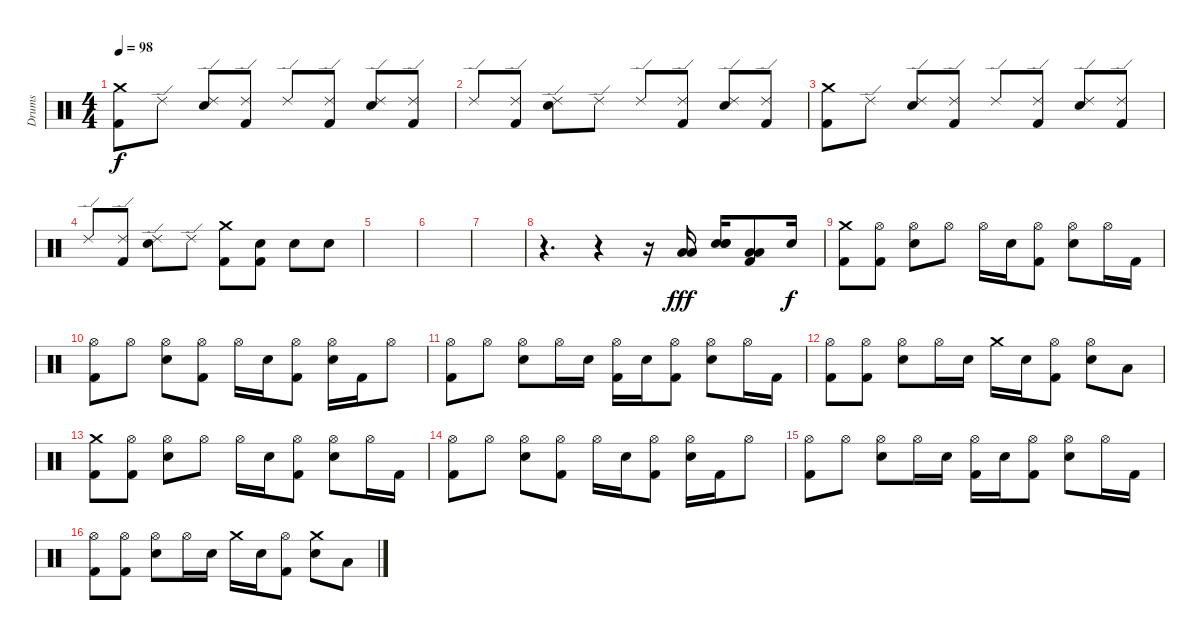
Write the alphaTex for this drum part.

\track ("Drums" "Drums") {instrument percussion}
\staff {score}
\articulation defaults
\ts (4 4)
\tempo 98
\clef neutral
\ks c
("Crash medium (hit)" "Kick (hit) 2").8{dy f} "Ride (edge) 2".8 ("Ride (edge) 2" "Electric Snare (hit)").8 ("Ride (edge) 2" "Kick (hit) 2").8 "Ride (edge) 2".8 ("Ride (edge) 2" "Kick (hit) 2").8 ("Ride (edge) 2" "Electric Snare (hit)").8 ("Ride (edge) 2" "Kick (hit) 2").8 |
"Ride (edge) 2".8 ("Ride (edge) 2" "Kick (hit) 2").8 ("Ride (edge) 2" "Electric Snare (hit)").8 "Ride (edge) 2".8 "Ride (edge) 2".8 ("Ride (edge) 2" "Kick (hit) 2").8 ("Ride (edge) 2" "Electric Snare (hit)").8 ("Ride (edge) 2" "Kick (hit) 2").8 |
("Crash medium (hit)" "Kick (hit) 2").8 "Ride (edge) 2".8 ("Ride (edge) 2" "Electric Snare (hit)").8 ("Ride (edge) 2" "Kick (hit) 2").8 "Ride (edge) 2".8 ("Ride (edge) 2" "Kick (hit) 2").8 ("Ride (edge) 2" "Electric Snare (hit)").8 ("Ride (edge) 2" "Kick (hit) 2").8 |
"Ride (edge) 2".8 ("Ride (edge) 2" "Kick (hit) 2").8 ("Ride (edge) 2" "Electric Snare (hit)").8 "Ride (edge) 2".8 ("Crash medium (hit)" "Kick (hit) 2").8 ("Electric Snare (hit)" "Kick (hit) 2").8 "Electric Snare (hit)".8 "Electric Snare (hit)".8 |
|
|
|
r.4{d} r.4 r.16 ("Low Tom (hit)" "Low Tom (hit)").16{dy fff} ("Electric Snare (hit)" "Electric Snare (hit)" "Electric Snare (hit)").16 ("Low Tom (hit)" "Low Tom (hit)" "Kick (hit) 2").8 "Electric Snare (hit)".16{dy f} |
("Crash medium (hit)" "Kick (hit) 2").8 ("Hi-Hat (open)" "Kick (hit) 2").8 ("Hi-Hat (open)" "Electric Snare (hit)").8 "Hi-Hat (open)".8 "Hi-Hat (open)".16 "Electric Snare (hit)".16 ("Hi-Hat (open)" "Kick (hit) 2").8 ("Hi-Hat (open)" "Electric Snare (hit)").8 "Hi-Hat (open)".16 "Kick (hit) 2".16 |
("Hi-Hat (open)" "Kick (hit) 2").8 "Hi-Hat (open)".8 ("Hi-Hat (open)" "Electric Snare (hit)").8 ("Hi-Hat (open)" "Kick (hit) 2").8 "Hi-Hat (open)".16 "Electric Snare (hit)".16 ("Hi-Hat (open)" "Kick (hit) 2").8 ("Hi-Hat (open)" "Electric Snare (hit)").16 "Kick (hit) 2".16 "Hi-Hat (open)".8 |
("Hi-Hat (open)" "Kick (hit) 2").8 "Hi-Hat (open)".8 ("Hi-Hat (open)" "Electric Snare (hit)").8 "Hi-Hat (open)".16 "Electric Snare (hit)".16 ("Hi-Hat (open)" "Kick (hit) 2").16 "Electric Snare (hit)".16 ("Hi-Hat (open)" "Kick (hit) 2").8 ("Hi-Hat (open)" "Electric Snare (hit)").8 "Hi-Hat (open)".16 "Kick (hit) 2".16 |
("Hi-Hat (open)" "Kick (hit) 2").8 ("Hi-Hat (open)" "Kick (hit) 2").8 ("Hi-Hat (open)" "Electric Snare (hit)").8 "Hi-Hat (open)".16 "Electric Snare (hit)".16 "Crash medium (hit)".16 "Electric Snare (hit)".16 ("Hi-Hat (open)" "Kick (hit) 2").8 ("Hi-Hat (open)" "Electric Snare (hit)").8 "Low Tom (hit)".8 |
("Crash medium (hit)" "Kick (hit) 2").8 ("Hi-Hat (open)" "Kick (hit) 2").8 ("Hi-Hat (open)" "Electric Snare (hit)").8 "Hi-Hat (open)".8 "Hi-Hat (open)".16 "Electric Snare (hit)".16 ("Hi-Hat (open)" "Kick (hit) 2").8 ("Hi-Hat (open)" "Electric Snare (hit)").8 "Hi-Hat (open)".16 "Kick (hit) 2".16 |
("Hi-Hat (open)" "Kick (hit) 2").8 "Hi-Hat (open)".8 ("Hi-Hat (open)" "Electric Snare (hit)").8 ("Hi-Hat (open)" "Kick (hit) 2").8 "Hi-Hat (open)".16 "Electric Snare (hit)".16 ("Hi-Hat (open)" "Kick (hit) 2").8 ("Hi-Hat (open)" "Electric Snare (hit)").16 "Kick (hit) 2".16 "Hi-Hat (open)".8 |
("Hi-Hat (open)" "Kick (hit) 2").8 "Hi-Hat (open)".8 ("Hi-Hat (open)" "Electric Snare (hit)").8 "Hi-Hat (open)".16 "Electric Snare (hit)".16 ("Hi-Hat (open)" "Kick (hit) 2").16 "Electric Snare (hit)".16 ("Hi-Hat (open)" "Kick (hit) 2").8 ("Hi-Hat (open)" "Electric Snare (hit)").8 "Hi-Hat (open)".16 "Kick (hit) 2".16 |
("Hi-Hat (open)" "Kick (hit) 2").8 ("Hi-Hat (open)" "Kick (hit) 2").8 ("Hi-Hat (open)" "Electric Snare (hit)").8 "Hi-Hat (open)".16 "Electric Snare (hit)".16 "Crash medium (hit)".16 "Electric Snare (hit)".16 ("Hi-Hat (open)" "Kick (hit) 2").8 ("Crash medium (hit)" "Electric Snare (hit)").8 "Low Tom (hit)".8
